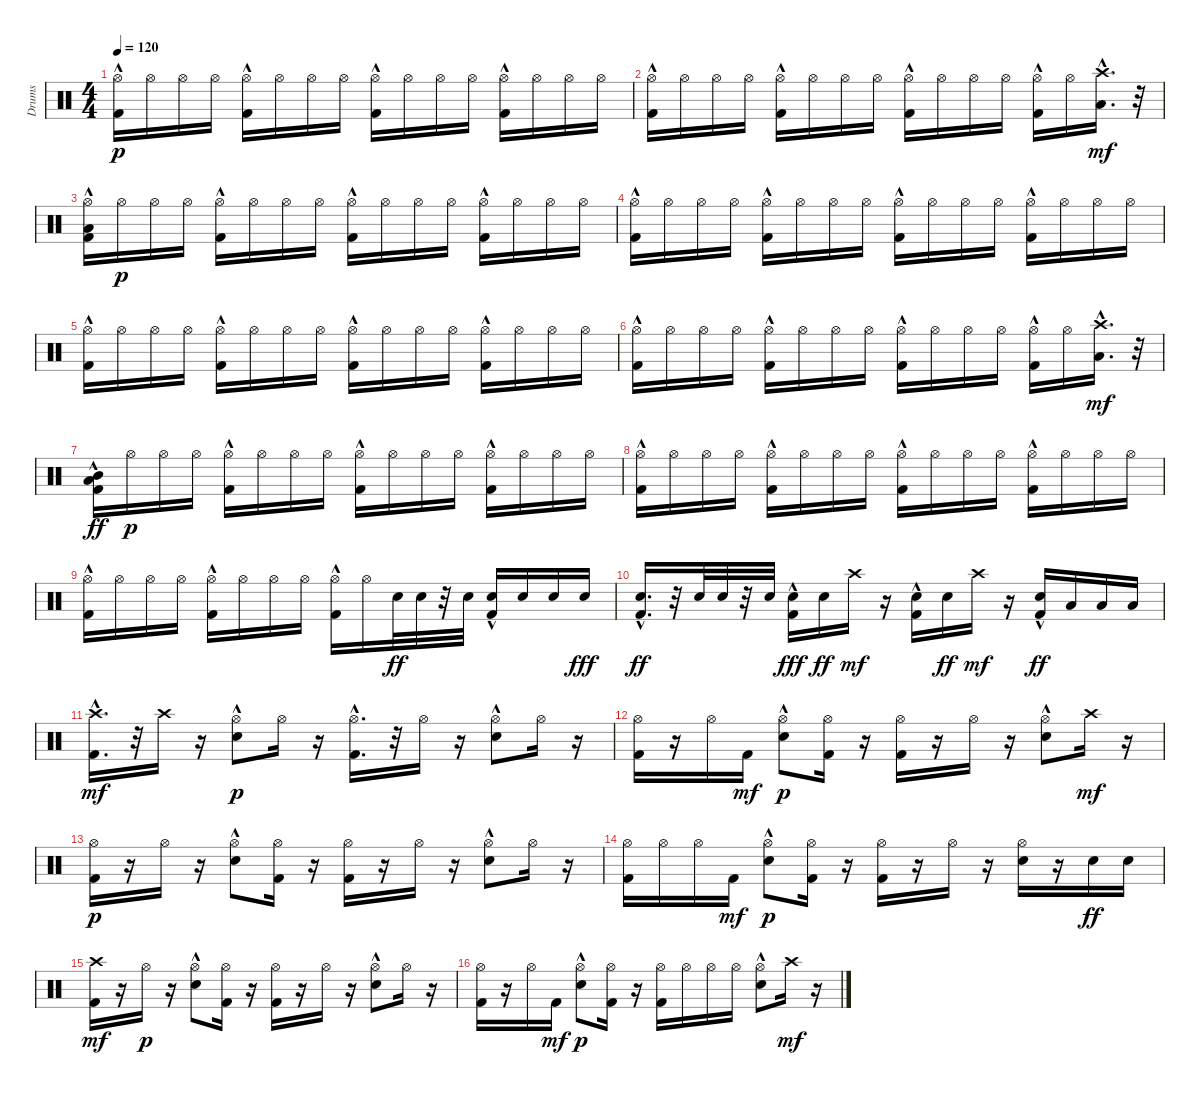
\track ("Drums" "Drums") {instrument percussion}
\staff {score}
\articulation defaults
\ts (4 4)
\tempo 120
\clef neutral
\ks c
("Kick (hit) 2"{hac} "Hi-Hat (open)").16{dy p} "Hi-Hat (open)".16 "Hi-Hat (open)".16 "Hi-Hat (open)".16 ("Kick (hit) 2"{hac} "Hi-Hat (open)").16 "Hi-Hat (open)".16 "Hi-Hat (open)".16 "Hi-Hat (open)".16 ("Kick (hit) 2"{hac} "Hi-Hat (open)").16 "Hi-Hat (open)".16 "Hi-Hat (open)".16 "Hi-Hat (open)".16 ("Kick (hit) 2"{hac} "Hi-Hat (open)").16 "Hi-Hat (open)".16 "Hi-Hat (open)".16 "Hi-Hat (open)".16 |
("Kick (hit) 2"{hac} "Hi-Hat (open)").16 "Hi-Hat (open)".16 "Hi-Hat (open)".16 "Hi-Hat (open)".16 ("Kick (hit) 2"{hac} "Hi-Hat (open)").16 "Hi-Hat (open)".16 "Hi-Hat (open)".16 "Hi-Hat (open)".16 ("Kick (hit) 2"{hac} "Hi-Hat (open)").16 "Hi-Hat (open)".16 "Hi-Hat (open)".16 "Hi-Hat (open)".16 ("Kick (hit) 2"{hac} "Hi-Hat (open)").16 "Hi-Hat (open)".16 ("Low Tom (hit)"{hac} "Crash high (hit)").16{d dy mf} r.32 |
("Hi-Hat (open)" "Low Tom (hit)"{hac} "Kick (hit) 2"{hac}).16 "Hi-Hat (open)".16{dy p} "Hi-Hat (open)".16 "Hi-Hat (open)".16 ("Kick (hit) 2"{hac} "Hi-Hat (open)").16 "Hi-Hat (open)".16 "Hi-Hat (open)".16 "Hi-Hat (open)".16 ("Kick (hit) 2"{hac} "Hi-Hat (open)").16 "Hi-Hat (open)".16 "Hi-Hat (open)".16 "Hi-Hat (open)".16 ("Kick (hit) 2"{hac} "Hi-Hat (open)").16 "Hi-Hat (open)".16 "Hi-Hat (open)".16 "Hi-Hat (open)".16 |
("Kick (hit) 2"{hac} "Hi-Hat (open)").16 "Hi-Hat (open)".16 "Hi-Hat (open)".16 "Hi-Hat (open)".16 ("Kick (hit) 2"{hac} "Hi-Hat (open)").16 "Hi-Hat (open)".16 "Hi-Hat (open)".16 "Hi-Hat (open)".16 ("Kick (hit) 2"{hac} "Hi-Hat (open)").16 "Hi-Hat (open)".16 "Hi-Hat (open)".16 "Hi-Hat (open)".16 ("Kick (hit) 2"{hac} "Hi-Hat (open)").16 "Hi-Hat (open)".16 "Hi-Hat (open)".16 "Hi-Hat (open)".16 |
("Kick (hit) 2"{hac} "Hi-Hat (open)").16 "Hi-Hat (open)".16 "Hi-Hat (open)".16 "Hi-Hat (open)".16 ("Kick (hit) 2"{hac} "Hi-Hat (open)").16 "Hi-Hat (open)".16 "Hi-Hat (open)".16 "Hi-Hat (open)".16 ("Kick (hit) 2"{hac} "Hi-Hat (open)").16 "Hi-Hat (open)".16 "Hi-Hat (open)".16 "Hi-Hat (open)".16 ("Kick (hit) 2"{hac} "Hi-Hat (open)").16 "Hi-Hat (open)".16 "Hi-Hat (open)".16 "Hi-Hat (open)".16 |
("Kick (hit) 2"{hac} "Hi-Hat (open)").16 "Hi-Hat (open)".16 "Hi-Hat (open)".16 "Hi-Hat (open)".16 ("Kick (hit) 2"{hac} "Hi-Hat (open)").16 "Hi-Hat (open)".16 "Hi-Hat (open)".16 "Hi-Hat (open)".16 ("Kick (hit) 2"{hac} "Hi-Hat (open)").16 "Hi-Hat (open)".16 "Hi-Hat (open)".16 "Hi-Hat (open)".16 ("Kick (hit) 2"{hac} "Hi-Hat (open)").16 "Hi-Hat (open)".16 ("Low Tom (hit)"{hac} "Crash high (hit)").16{d dy mf} r.32 |
("Kick (hit) 2"{hac} "Mid Tom (hit)" "Low Tom (hit)"{hac}).16{dy ff} "Hi-Hat (open)".16{dy p} "Hi-Hat (open)".16 "Hi-Hat (open)".16 ("Kick (hit) 2"{hac} "Hi-Hat (open)").16 "Hi-Hat (open)".16 "Hi-Hat (open)".16 "Hi-Hat (open)".16 ("Kick (hit) 2"{hac} "Hi-Hat (open)").16 "Hi-Hat (open)".16 "Hi-Hat (open)".16 "Hi-Hat (open)".16 ("Kick (hit) 2"{hac} "Hi-Hat (open)").16 "Hi-Hat (open)".16 "Hi-Hat (open)".16 "Hi-Hat (open)".16 |
("Kick (hit) 2"{hac} "Hi-Hat (open)").16 "Hi-Hat (open)".16 "Hi-Hat (open)".16 "Hi-Hat (open)".16 ("Kick (hit) 2"{hac} "Hi-Hat (open)").16 "Hi-Hat (open)".16 "Hi-Hat (open)".16 "Hi-Hat (open)".16 ("Kick (hit) 2"{hac} "Hi-Hat (open)").16 "Hi-Hat (open)".16 "Hi-Hat (open)".16 "Hi-Hat (open)".16 ("Kick (hit) 2"{hac} "Hi-Hat (open)").16 "Hi-Hat (open)".16 "Hi-Hat (open)".16 "Hi-Hat (open)".16 |
("Kick (hit) 2"{hac} "Hi-Hat (open)").16 "Hi-Hat (open)".16 "Hi-Hat (open)".16 "Hi-Hat (open)".16 ("Kick (hit) 2"{hac} "Hi-Hat (open)").16 "Hi-Hat (open)".16 "Hi-Hat (open)".16 "Hi-Hat (open)".16 ("Kick (hit) 2"{hac} "Hi-Hat (open)").16 "Hi-Hat (open)".16 "Electric Snare (hit)".32{dy ff} "Electric Snare (hit)".32 r.32 "Electric Snare (hit)".32 ("Kick (hit) 2"{hac} "Electric Snare (hit)").16 "Electric Snare (hit)".16 "Electric Snare (hit)".16 "Electric Snare (hit)".16{dy fff} |
("Kick (hit) 2"{hac} "Electric Snare (hit)").16{d dy ff} r.32 "Electric Snare (hit)".32 "Electric Snare (hit)".32 r.32 "Electric Snare (hit)".32 ("Kick (hit) 2"{hac} "Electric Snare (hit)").16{dy fff} "Electric Snare (hit)".16{dy ff} "Crash high (hit)".16{dy mf} r.16 ("Electric Snare (hit)" "Kick (hit) 2"{hac}).16 "Electric Snare (hit)".16{dy ff} "Crash high (hit)".16{dy mf} r.16 ("Kick (hit) 2"{hac} "Electric Snare (hit)").16{dy ff} "Low Tom (hit)".16 "Low Tom (hit)".16 "Low Floor Tom (hit)".16 |
("Kick (hit) 2"{hac} "Crash high (hit)").16{d dy mf} r.32 "Crash high (hit)".16 r.16 ("Electric Snare (hit)"{hac} "Hi-Hat (open)").8{dy p} "Hi-Hat (open)".16 r.16 ("Kick (hit) 2"{hac} "Hi-Hat (open)").16{d} r.32 "Hi-Hat (open)".16 r.16 ("Electric Snare (hit)"{hac} "Hi-Hat (open)").8 "Hi-Hat (open)".16 r.16 |
("Kick (hit) 2" "Hi-Hat (open)").16 r.16 "Hi-Hat (open)".16 "Kick (hit) 2".16{dy mf} ("Electric Snare (hit)"{hac} "Hi-Hat (open)").8{dy p} ("Kick (hit) 2" "Hi-Hat (open)").16 r.16 ("Kick (hit) 2" "Hi-Hat (open)").16 r.16 "Hi-Hat (open)".16 r.16 ("Electric Snare (hit)"{hac} "Hi-Hat (open)").8 "Crash high (hit)".16{dy mf} r.16 |
("Kick (hit) 2" "Hi-Hat (open)").16{dy p} r.16 "Hi-Hat (open)".16 r.16 ("Electric Snare (hit)"{hac} "Hi-Hat (open)").8 ("Kick (hit) 2" "Hi-Hat (open)").16 r.16 ("Kick (hit) 2" "Hi-Hat (open)").16 r.16 "Hi-Hat (open)".16 r.16 ("Electric Snare (hit)"{hac} "Hi-Hat (open)").8 "Hi-Hat (open)".16 r.16 |
("Kick (hit) 2" "Hi-Hat (open)").16 "Hi-Hat (open)".16 "Hi-Hat (open)".16 "Kick (hit) 2".16{dy mf} ("Electric Snare (hit)"{hac} "Hi-Hat (open)").8{dy p} ("Kick (hit) 2" "Hi-Hat (open)").16 r.16 ("Kick (hit) 2" "Hi-Hat (open)").16 r.16 "Hi-Hat (open)".16 r.16 ("Electric Snare (hit)" "Hi-Hat (open)").16 r.16 "Electric Snare (hit)".16{dy ff} "Electric Snare (hit)".16 |
("Kick (hit) 2" "Crash high (hit)").16{dy mf} r.16 "Hi-Hat (open)".16{dy p} r.16 ("Electric Snare (hit)"{hac} "Hi-Hat (open)").8 ("Kick (hit) 2" "Hi-Hat (open)").16 r.16 ("Kick (hit) 2" "Hi-Hat (open)").16 r.16 "Hi-Hat (open)".16 r.16 ("Electric Snare (hit)"{hac} "Hi-Hat (open)").8 "Hi-Hat (open)".16 r.16 |
("Kick (hit) 2" "Hi-Hat (open)").16 r.16 "Hi-Hat (open)".16 "Kick (hit) 2".16{dy mf} ("Electric Snare (hit)"{hac} "Hi-Hat (open)").8{dy p} ("Kick (hit) 2" "Hi-Hat (open)").16 r.16 ("Kick (hit) 2" "Hi-Hat (open)").16 "Hi-Hat (open)".16 "Hi-Hat (open)".16 "Hi-Hat (open)".16 ("Electric Snare (hit)"{hac} "Hi-Hat (open)").8 "Crash high (hit)".16{dy mf} r.16
